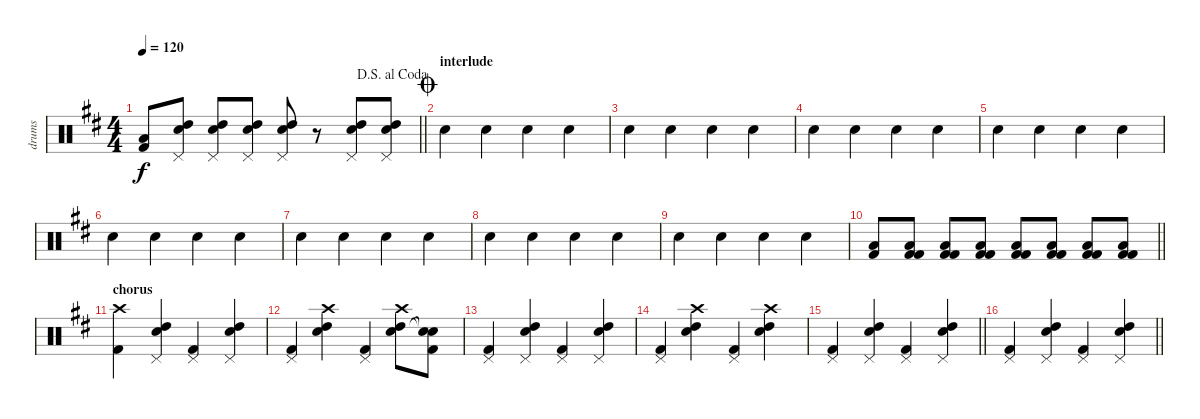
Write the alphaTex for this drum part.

\track ("drums" "drums") {instrument percussion}
\staff {score}
\articulation defaults
\ts (4 4)
\jump dalsegnoalcoda
\tempo 120
\clef neutral
\barLineRight lightlight
\ks d
("Kick (hit) 2" "Low Floor Tom (hit)").8{dy f} ("Pedal Hi-Hat (hit)" "High Tom (hit)" "Electric Snare (hit)").8 ("Pedal Hi-Hat (hit)" "High Tom (hit)" "Electric Snare (hit)").8 ("Pedal Hi-Hat (hit)" "High Tom (hit)" "Electric Snare (hit)").8 ("Pedal Hi-Hat (hit)" "High Tom (hit)" "Electric Snare (hit)").8 r.8 ("Pedal Hi-Hat (hit)" "High Tom (hit)" "Electric Snare (hit)").8 ("Pedal Hi-Hat (hit)" "High Tom (hit)" "Electric Snare (hit)").8 |
\section ("" "interlude")
\jump coda "Hand Clap (hit)".4 "Hand Clap (hit)".4 "Hand Clap (hit)".4 "Hand Clap (hit)".4
|
"Hand Clap (hit)".4 "Hand Clap (hit)".4 "Hand Clap (hit)".4 "Hand Clap (hit)".4 |
"Hand Clap (hit)".4 "Hand Clap (hit)".4 "Hand Clap (hit)".4 "Hand Clap (hit)".4 |
"Hand Clap (hit)".4 "Hand Clap (hit)".4 "Hand Clap (hit)".4 "Hand Clap (hit)".4 |
"Hand Clap (hit)".4 "Hand Clap (hit)".4 "Hand Clap (hit)".4 "Hand Clap (hit)".4 |
"Hand Clap (hit)".4 "Hand Clap (hit)".4 "Hand Clap (hit)".4 "Hand Clap (hit)".4 |
"Hand Clap (hit)".4 "Hand Clap (hit)".4 "Hand Clap (hit)".4 "Hand Clap (hit)".4 |
"Hand Clap (hit)".4 "Hand Clap (hit)".4 "Hand Clap (hit)".4 "Hand Clap (hit)".4 |
\barLineRight lightlight
("Kick (hit) 2" "Low Floor Tom (hit)").8 ("Kick (hit) 2" "Low Floor Tom (hit)" "Kick (hit) 2").8 ("Kick (hit) 2" "Low Floor Tom (hit)" "Kick (hit) 2").8 ("Kick (hit) 2" "Low Floor Tom (hit)" "Kick (hit) 2").8 ("Kick (hit) 2" "Low Floor Tom (hit)" "Kick (hit) 2").8 ("Kick (hit) 2" "Low Floor Tom (hit)" "Kick (hit) 2").8 ("Kick (hit) 2" "Low Floor Tom (hit)" "Kick (hit) 2").8 ("Kick (hit) 2" "Low Floor Tom (hit)" "Kick (hit) 2").8 |
\section ("" "chorus")
("Crash high (hit)" "Kick (hit) 2").4 ("Pedal Hi-Hat (hit)" "High Tom (hit)" "Electric Snare (hit)").4 ("Kick (hit) 2" "Pedal Hi-Hat (hit)").4 ("Pedal Hi-Hat (hit)" "High Tom (hit)" "Electric Snare (hit)").4 |
("Pedal Hi-Hat (hit)" "Kick (hit) 2").4 ("Crash high (hit)" "High Tom (hit)" "Electric Snare (hit)").4 ("Kick (hit) 2" "Pedal Hi-Hat (hit)").4 ("Crash high (hit)" "High Tom (hit)" "Electric Snare (hit)").8 ("Kick (hit) 2" "Snare (hit)"{t} "Snare (hit)"{t}).8 |
("Pedal Hi-Hat (hit)" "Kick (hit) 2").4 ("Pedal Hi-Hat (hit)" "High Tom (hit)" "Electric Snare (hit)").4 ("Kick (hit) 2" "Pedal Hi-Hat (hit)").4 ("Pedal Hi-Hat (hit)" "High Tom (hit)" "Electric Snare (hit)").4 |
("Pedal Hi-Hat (hit)" "Kick (hit) 2").4 ("Crash high (hit)" "High Tom (hit)" "Electric Snare (hit)").4 ("Kick (hit) 2" "Pedal Hi-Hat (hit)").4 ("Crash high (hit)" "High Tom (hit)" "Electric Snare (hit)").4 |
\barLineRight lightlight
("Pedal Hi-Hat (hit)" "Kick (hit) 2").4 ("Pedal Hi-Hat (hit)" "High Tom (hit)" "Electric Snare (hit)").4 ("Kick (hit) 2" "Pedal Hi-Hat (hit)").4 ("Pedal Hi-Hat (hit)" "High Tom (hit)" "Electric Snare (hit)").4 |
\barLineRight lightlight
("Pedal Hi-Hat (hit)" "Kick (hit) 2").4 ("Pedal Hi-Hat (hit)" "High Tom (hit)" "Electric Snare (hit)").4 ("Kick (hit) 2" "Pedal Hi-Hat (hit)").4 ("Pedal Hi-Hat (hit)" "High Tom (hit)" "Electric Snare (hit)").4
